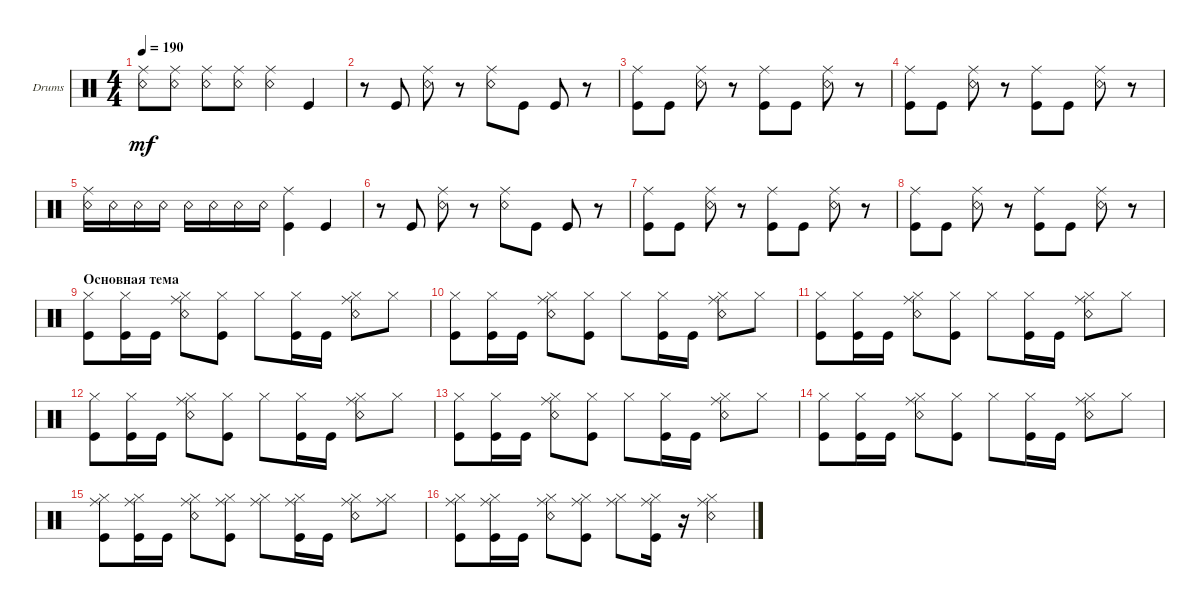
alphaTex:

\defaultSystemsLayout 4
\bracketExtendMode groupsimilarinstruments
\firstSystemTrackNameOrientation horizontal
\otherSystemsTrackNameOrientation horizontal
\track ("Drumkit" "Drums") {instrument percussion}
\staff {score}
\articulation defaults
\ts (4 4)
\tempo 190
\clef neutral
\ks c
("Snare (rim shot)" "Ride (middle)").8{dy mf} ("Snare (rim shot)" "Ride (middle)").8 ("Snare (rim shot)" "Ride (middle)").8 ("Snare (rim shot)" "Ride (middle)").8 ("Snare (rim shot)" "Ride (middle)").4 "Kick (hit)".4 |
r.8 "Kick (hit)".8 ("Snare (rim shot)" "Ride (middle)").8 r.8 ("Snare (rim shot)" "Ride (middle)").8 "Kick (hit)".8 "Kick (hit)".8 r.8 |
("Kick (hit)" "Ride (middle)").8 "Kick (hit)".8 ("Snare (rim shot)" "Ride (middle)").8 r.8 ("Kick (hit)" "Ride (middle)").8 "Kick (hit)".8 ("Snare (rim shot)" "Ride (middle)").8 r.8 |
("Kick (hit)" "Ride (middle)").8 "Kick (hit)".8 ("Snare (rim shot)" "Ride (middle)").8 r.8 ("Kick (hit)" "Ride (middle)").8 "Kick (hit)".8 ("Snare (rim shot)" "Ride (middle)").8 r.8 |
("Snare (rim shot)" "Ride (middle)").16 "Snare (rim shot)".16 "Snare (rim shot)".16 "Snare (rim shot)".16 "Snare (rim shot)".16 "Snare (rim shot)".16 "Snare (rim shot)".16 "Snare (rim shot)".16 ("Kick (hit)" "Ride (middle)").4 "Kick (hit)".4 |
r.8 "Kick (hit)".8 ("Snare (rim shot)" "Ride (middle)").8 r.8 ("Snare (rim shot)" "Ride (middle)").8 "Kick (hit)".8 "Kick (hit)".8 r.8 |
("Kick (hit)" "Ride (middle)").8 "Kick (hit)".8 ("Snare (rim shot)" "Ride (middle)").8 r.8 ("Kick (hit)" "Ride (middle)").8 "Kick (hit)".8 ("Snare (rim shot)" "Ride (middle)").8 r.8 |
("Kick (hit)" "Ride (middle)").8 "Kick (hit)".8 ("Snare (rim shot)" "Ride (middle)").8 r.8 ("Kick (hit)" "Ride (middle)").8 "Kick (hit)".8 ("Snare (rim shot)" "Ride (middle)").8 r.8 |
\section ("" "Основная тема")
("Kick (hit)" "Hi-Hat (closed)").8 ("Kick (hit)" "Hi-Hat (closed)").16 "Kick (hit)".16 ("Snare (rim shot)" "Ride (middle)" "Hi-Hat (closed)").8 ("Kick (hit)" "Hi-Hat (closed)").8 "Hi-Hat (closed)".8 ("Kick (hit)" "Hi-Hat (closed)").16 "Kick (hit)".16 ("Snare (rim shot)" "Ride (middle)" "Hi-Hat (closed)").8 "Hi-Hat (closed)".8 |
("Kick (hit)" "Hi-Hat (closed)").8 ("Kick (hit)" "Hi-Hat (closed)").16 "Kick (hit)".16 ("Snare (rim shot)" "Ride (middle)" "Hi-Hat (closed)").8 ("Kick (hit)" "Hi-Hat (closed)").8 "Hi-Hat (closed)".8 ("Kick (hit)" "Hi-Hat (closed)").16 "Kick (hit)".16 ("Snare (rim shot)" "Ride (middle)" "Hi-Hat (closed)").8 "Hi-Hat (closed)".8 |
("Kick (hit)" "Hi-Hat (closed)").8 ("Kick (hit)" "Hi-Hat (closed)").16 "Kick (hit)".16 ("Snare (rim shot)" "Ride (middle)" "Hi-Hat (closed)").8 ("Kick (hit)" "Hi-Hat (closed)").8 "Hi-Hat (closed)".8 ("Kick (hit)" "Hi-Hat (closed)").16 "Kick (hit)".16 ("Snare (rim shot)" "Ride (middle)" "Hi-Hat (closed)").8 "Hi-Hat (closed)".8 |
("Kick (hit)" "Hi-Hat (closed)").8 ("Kick (hit)" "Hi-Hat (closed)").16 "Kick (hit)".16 ("Snare (rim shot)" "Ride (middle)" "Hi-Hat (closed)").8 ("Kick (hit)" "Hi-Hat (closed)").8 "Hi-Hat (closed)".8 ("Kick (hit)" "Hi-Hat (closed)").16 "Kick (hit)".16 ("Snare (rim shot)" "Ride (middle)" "Hi-Hat (closed)").8 "Hi-Hat (closed)".8 |
("Kick (hit)" "Hi-Hat (closed)").8 ("Kick (hit)" "Hi-Hat (closed)").16 "Kick (hit)".16 ("Snare (rim shot)" "Ride (middle)" "Hi-Hat (closed)").8 ("Kick (hit)" "Hi-Hat (closed)").8 "Hi-Hat (closed)".8 ("Kick (hit)" "Hi-Hat (closed)").16 "Kick (hit)".16 ("Snare (rim shot)" "Ride (middle)" "Hi-Hat (closed)").8 "Hi-Hat (closed)".8 |
("Kick (hit)" "Hi-Hat (closed)").8 ("Kick (hit)" "Hi-Hat (closed)").16 "Kick (hit)".16 ("Snare (rim shot)" "Ride (middle)" "Hi-Hat (closed)").8 ("Kick (hit)" "Hi-Hat (closed)").8 "Hi-Hat (closed)".8 ("Kick (hit)" "Hi-Hat (closed)").16 "Kick (hit)".16 ("Snare (rim shot)" "Ride (middle)" "Hi-Hat (closed)").8 "Hi-Hat (closed)".8 |
("Kick (hit)" "Hi-Hat (closed)" "Ride (middle)").8 ("Kick (hit)" "Hi-Hat (closed)" "Ride (middle)").16 "Kick (hit)".16 ("Snare (rim shot)" "Ride (middle)" "Hi-Hat (closed)").8 ("Kick (hit)" "Hi-Hat (closed)" "Ride (middle)").8 ("Hi-Hat (closed)" "Ride (middle)").8 ("Kick (hit)" "Hi-Hat (closed)" "Ride (middle)").16 "Kick (hit)".16 ("Snare (rim shot)" "Ride (middle)" "Hi-Hat (closed)").8 ("Hi-Hat (closed)" "Ride (middle)").8 |
("Kick (hit)" "Hi-Hat (closed)" "Ride (middle)").8 ("Kick (hit)" "Hi-Hat (closed)" "Ride (middle)").16 "Kick (hit)".16 ("Snare (rim shot)" "Ride (middle)" "Hi-Hat (closed)").8 ("Kick (hit)" "Hi-Hat (closed)" "Ride (middle)").8 ("Hi-Hat (closed)" "Ride (middle)").8 ("Kick (hit)" "Hi-Hat (closed)" "Ride (middle)").16 r.16 ("Snare (rim shot)" "Ride (middle)" "Hi-Hat (closed)").4
